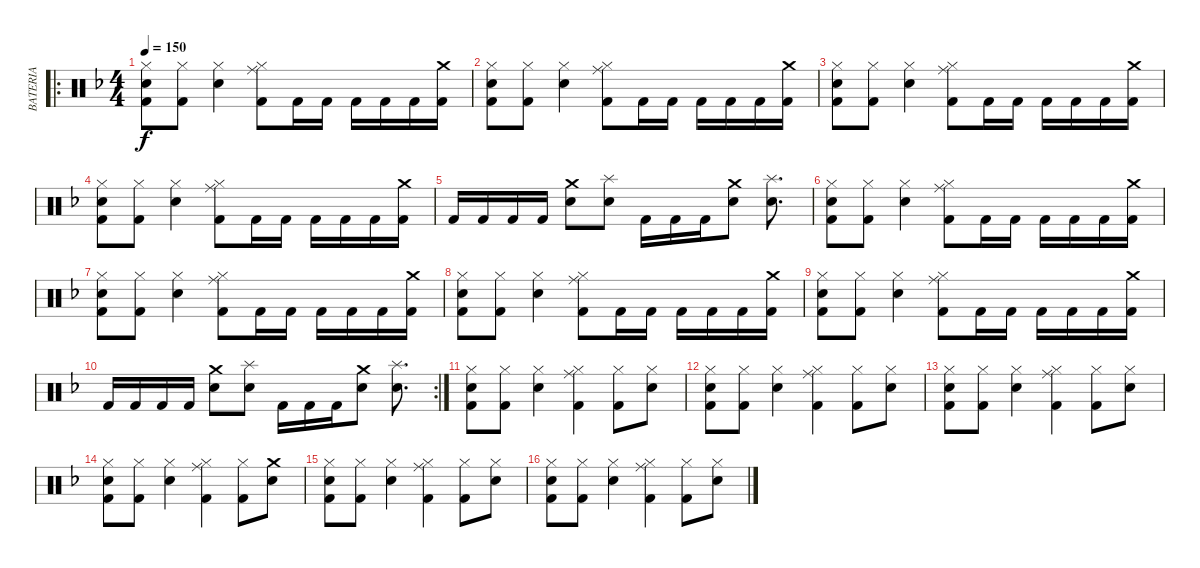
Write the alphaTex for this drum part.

\track ("BATERIA" "BATERIA") {instrument percussion}
\staff {score}
\articulation defaults
\ro
\ts (4 4)
\tempo 150
\clef neutral
\ks dminor
("Hi-Hat (closed)" "Snare (hit) 2" "Kick (hit) 2").8{dy f} ("Hi-Hat (closed)" "Kick (hit) 2").8 ("Hi-Hat (closed)" "Snare (hit) 2").4 ("Hi-Hat (closed)" "Ride (middle)" "Kick (hit) 2").8 "Kick (hit) 2".16 "Kick (hit) 2".16 "Kick (hit) 2".16 "Kick (hit) 2".16 "Kick (hit) 2".16 ("Crash medium (hit)" "Kick (hit) 2").16 |
("Hi-Hat (closed)" "Snare (hit) 2" "Kick (hit) 2").8 ("Hi-Hat (closed)" "Kick (hit) 2").8 ("Hi-Hat (closed)" "Snare (hit) 2").4 ("Hi-Hat (closed)" "Ride (middle)" "Kick (hit) 2").8 "Kick (hit) 2".16 "Kick (hit) 2".16 "Kick (hit) 2".16 "Kick (hit) 2".16 "Kick (hit) 2".16 ("Crash medium (hit)" "Kick (hit) 2").16 |
("Hi-Hat (closed)" "Snare (hit) 2" "Kick (hit) 2").8 ("Hi-Hat (closed)" "Kick (hit) 2").8 ("Hi-Hat (closed)" "Snare (hit) 2").4 ("Hi-Hat (closed)" "Ride (middle)" "Kick (hit) 2").8 "Kick (hit) 2".16 "Kick (hit) 2".16 "Kick (hit) 2".16 "Kick (hit) 2".16 "Kick (hit) 2".16 ("Crash medium (hit)" "Kick (hit) 2").16 |
("Hi-Hat (closed)" "Snare (hit) 2" "Kick (hit) 2").8 ("Hi-Hat (closed)" "Kick (hit) 2").8 ("Hi-Hat (closed)" "Snare (hit) 2").4 ("Hi-Hat (closed)" "Ride (middle)" "Kick (hit) 2").8 "Kick (hit) 2".16 "Kick (hit) 2".16 "Kick (hit) 2".16 "Kick (hit) 2".16 "Kick (hit) 2".16 ("Crash medium (hit)" "Kick (hit) 2").16 |
"Kick (hit) 2".16 "Kick (hit) 2".16 "Kick (hit) 2".16 "Kick (hit) 2".16 ("Crash medium (hit)" "Snare (hit) 2").8 ("Splash (hit)" "Snare (hit) 2").8 "Kick (hit) 2".16 "Kick (hit) 2".16 "Kick (hit) 2".16 ("Crash medium (hit)" "Snare (hit) 2").8 ("Splash (hit)" "Snare (hit) 2").8{d} |
("Hi-Hat (closed)" "Snare (hit) 2" "Kick (hit) 2").8 ("Hi-Hat (closed)" "Kick (hit) 2").8 ("Hi-Hat (closed)" "Snare (hit) 2").4 ("Hi-Hat (closed)" "Ride (middle)" "Kick (hit) 2").8 "Kick (hit) 2".16 "Kick (hit) 2".16 "Kick (hit) 2".16 "Kick (hit) 2".16 "Kick (hit) 2".16 ("Crash medium (hit)" "Kick (hit) 2").16 |
("Hi-Hat (closed)" "Snare (hit) 2" "Kick (hit) 2").8 ("Hi-Hat (closed)" "Kick (hit) 2").8 ("Hi-Hat (closed)" "Snare (hit) 2").4 ("Hi-Hat (closed)" "Ride (middle)" "Kick (hit) 2").8 "Kick (hit) 2".16 "Kick (hit) 2".16 "Kick (hit) 2".16 "Kick (hit) 2".16 "Kick (hit) 2".16 ("Crash medium (hit)" "Kick (hit) 2").16 |
("Hi-Hat (closed)" "Snare (hit) 2" "Kick (hit) 2").8 ("Hi-Hat (closed)" "Kick (hit) 2").8 ("Hi-Hat (closed)" "Snare (hit) 2").4 ("Hi-Hat (closed)" "Ride (middle)" "Kick (hit) 2").8 "Kick (hit) 2".16 "Kick (hit) 2".16 "Kick (hit) 2".16 "Kick (hit) 2".16 "Kick (hit) 2".16 ("Crash medium (hit)" "Kick (hit) 2").16 |
("Hi-Hat (closed)" "Snare (hit) 2" "Kick (hit) 2").8 ("Hi-Hat (closed)" "Kick (hit) 2").8 ("Hi-Hat (closed)" "Snare (hit) 2").4 ("Hi-Hat (closed)" "Ride (middle)" "Kick (hit) 2").8 "Kick (hit) 2".16 "Kick (hit) 2".16 "Kick (hit) 2".16 "Kick (hit) 2".16 "Kick (hit) 2".16 ("Crash medium (hit)" "Kick (hit) 2").16 |
\rc 2 "Kick (hit) 2".16 "Kick (hit) 2".16 "Kick (hit) 2".16 "Kick (hit) 2".16
("Crash medium (hit)" "Snare (hit) 2").8 ("Splash (hit)" "Snare (hit) 2").8 "Kick (hit) 2".16 "Kick (hit) 2".16 "Kick (hit) 2".16 ("Crash medium (hit)" "Snare (hit) 2").8 ("Splash (hit)" "Snare (hit) 2").8{d} |
("Hi-Hat (closed)" "Snare (hit) 2" "Kick (hit) 2").8 ("Hi-Hat (closed)" "Kick (hit) 2").8 ("Hi-Hat (closed)" "Snare (hit) 2").4 ("Hi-Hat (closed)" "Ride (middle)" "Kick (hit) 2").4 ("Hi-Hat (closed)" "Kick (hit) 2").8 ("Hi-Hat (closed)" "Snare (hit) 2").8 |
("Hi-Hat (closed)" "Snare (hit) 2" "Kick (hit) 2").8 ("Hi-Hat (closed)" "Kick (hit) 2").8 ("Hi-Hat (closed)" "Snare (hit) 2").4 ("Hi-Hat (closed)" "Ride (middle)" "Kick (hit) 2").4 ("Hi-Hat (closed)" "Kick (hit) 2").8 ("Hi-Hat (closed)" "Snare (hit) 2").8 |
("Hi-Hat (closed)" "Snare (hit) 2" "Kick (hit) 2").8 ("Hi-Hat (closed)" "Kick (hit) 2").8 ("Hi-Hat (closed)" "Snare (hit) 2").4 ("Hi-Hat (closed)" "Ride (middle)" "Kick (hit) 2").4 ("Hi-Hat (closed)" "Kick (hit) 2").8 ("Hi-Hat (closed)" "Snare (hit) 2").8 |
("Hi-Hat (closed)" "Snare (hit) 2" "Kick (hit) 2").8 ("Hi-Hat (closed)" "Kick (hit) 2").8 ("Hi-Hat (closed)" "Snare (hit) 2").4 ("Hi-Hat (closed)" "Ride (middle)" "Kick (hit) 2").4 ("Hi-Hat (closed)" "Kick (hit) 2").8 ("Crash medium (hit)" "Snare (hit) 2").8 |
("Hi-Hat (closed)" "Snare (hit) 2" "Kick (hit) 2").8 ("Hi-Hat (closed)" "Kick (hit) 2").8 ("Hi-Hat (closed)" "Snare (hit) 2").4 ("Hi-Hat (closed)" "Ride (middle)" "Kick (hit) 2").4 ("Hi-Hat (closed)" "Kick (hit) 2").8 ("Hi-Hat (closed)" "Snare (hit) 2").8 |
("Hi-Hat (closed)" "Snare (hit) 2" "Kick (hit) 2").8 ("Hi-Hat (closed)" "Kick (hit) 2").8 ("Hi-Hat (closed)" "Snare (hit) 2").4 ("Hi-Hat (closed)" "Ride (middle)" "Kick (hit) 2").4 ("Hi-Hat (closed)" "Kick (hit) 2").8 ("Hi-Hat (closed)" "Snare (hit) 2").8
